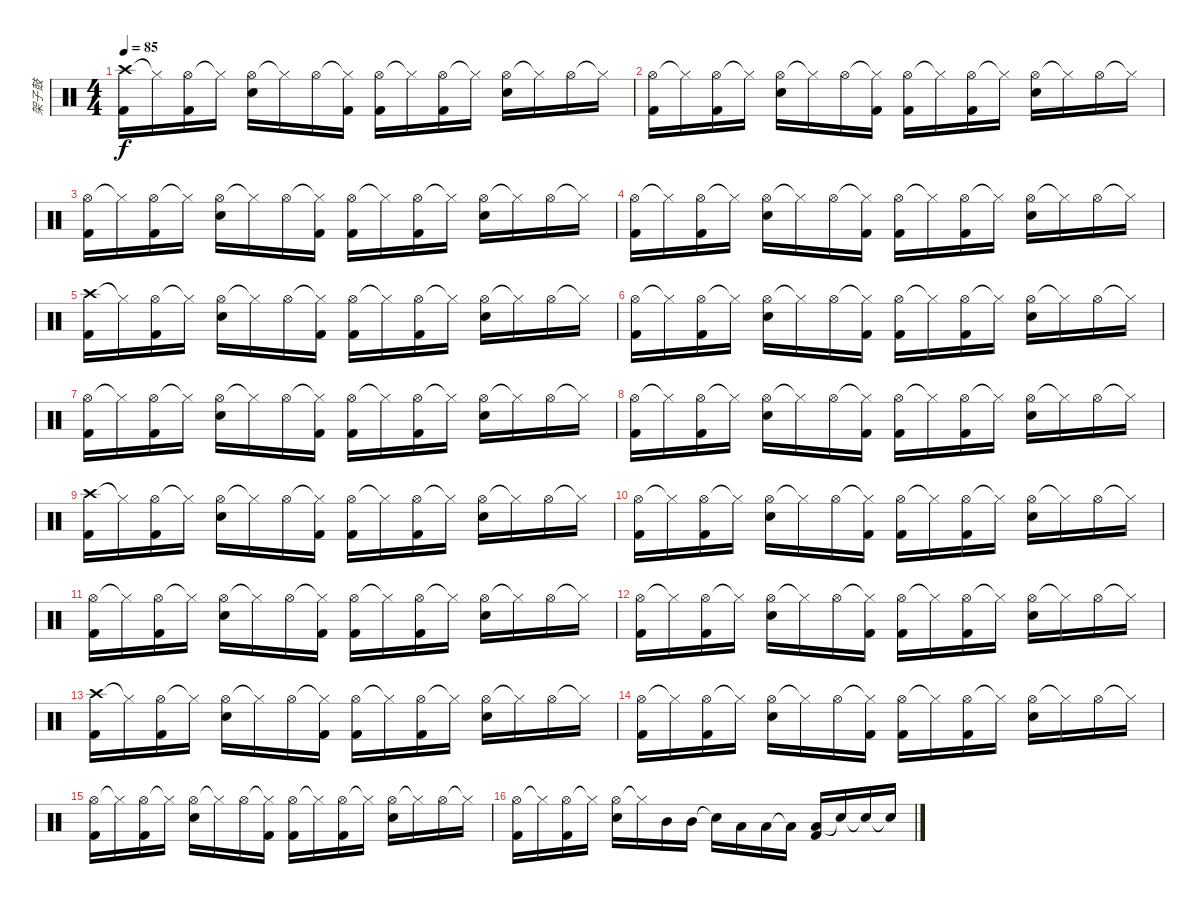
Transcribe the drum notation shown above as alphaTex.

\track ("架子鼓" "架子鼓") {instrument percussion}
\staff {score}
\articulation defaults
\ts (4 4)
\tempo 85
\clef neutral
\ks c
("Crash high (hit)" "Kick (hit) 2").16{dy f} "Hi-Hat (closed)"{t}.16 ("Hi-Hat (open)" "Kick (hit) 2").16 "Hi-Hat (closed)"{t}.16 ("Hi-Hat (open)" "Snare (hit) 2").16 "Hi-Hat (closed)"{t}.16 "Hi-Hat (open)".16 ("Hi-Hat (closed)"{t} "Kick (hit) 2").16 ("Hi-Hat (open)" "Kick (hit) 2").16 "Hi-Hat (closed)"{t}.16 ("Hi-Hat (open)" "Kick (hit) 2").16 "Hi-Hat (closed)"{t}.16 ("Hi-Hat (open)" "Snare (hit) 2").16 "Hi-Hat (closed)"{t}.16 "Hi-Hat (open)".16 "Hi-Hat (closed)"{t}.16 |
("Hi-Hat (open)" "Kick (hit) 2").16 "Hi-Hat (closed)"{t}.16 ("Hi-Hat (open)" "Kick (hit) 2").16 "Hi-Hat (closed)"{t}.16 ("Hi-Hat (open)" "Snare (hit) 2").16 "Hi-Hat (closed)"{t}.16 "Hi-Hat (open)".16 ("Hi-Hat (closed)"{t} "Kick (hit) 2").16 ("Hi-Hat (open)" "Kick (hit) 2").16 "Hi-Hat (closed)"{t}.16 ("Hi-Hat (open)" "Kick (hit) 2").16 "Hi-Hat (closed)"{t}.16 ("Hi-Hat (open)" "Snare (hit) 2").16 "Hi-Hat (closed)"{t}.16 "Hi-Hat (open)".16 "Hi-Hat (closed)"{t}.16 |
("Hi-Hat (open)" "Kick (hit) 2").16 "Hi-Hat (closed)"{t}.16 ("Hi-Hat (open)" "Kick (hit) 2").16 "Hi-Hat (closed)"{t}.16 ("Hi-Hat (open)" "Snare (hit) 2").16 "Hi-Hat (closed)"{t}.16 "Hi-Hat (open)".16 ("Hi-Hat (closed)"{t} "Kick (hit) 2").16 ("Hi-Hat (open)" "Kick (hit) 2").16 "Hi-Hat (closed)"{t}.16 ("Hi-Hat (open)" "Kick (hit) 2").16 "Hi-Hat (closed)"{t}.16 ("Hi-Hat (open)" "Snare (hit) 2").16 "Hi-Hat (closed)"{t}.16 "Hi-Hat (open)".16 "Hi-Hat (closed)"{t}.16 |
("Hi-Hat (open)" "Kick (hit) 2").16 "Hi-Hat (closed)"{t}.16 ("Hi-Hat (open)" "Kick (hit) 2").16 "Hi-Hat (closed)"{t}.16 ("Hi-Hat (open)" "Snare (hit) 2").16 "Hi-Hat (closed)"{t}.16 "Hi-Hat (open)".16 ("Hi-Hat (closed)"{t} "Kick (hit) 2").16 ("Hi-Hat (open)" "Kick (hit) 2").16 "Hi-Hat (closed)"{t}.16 ("Hi-Hat (open)" "Kick (hit) 2").16 "Hi-Hat (closed)"{t}.16 ("Hi-Hat (open)" "Snare (hit) 2").16 "Hi-Hat (closed)"{t}.16 "Hi-Hat (open)".16 "Hi-Hat (closed)"{t}.16 |
("Crash high (hit)" "Kick (hit) 2").16 "Hi-Hat (closed)"{t}.16 ("Hi-Hat (open)" "Kick (hit) 2").16 "Hi-Hat (closed)"{t}.16 ("Hi-Hat (open)" "Snare (hit) 2").16 "Hi-Hat (closed)"{t}.16 "Hi-Hat (open)".16 ("Hi-Hat (closed)"{t} "Kick (hit) 2").16 ("Hi-Hat (open)" "Kick (hit) 2").16 "Hi-Hat (closed)"{t}.16 ("Hi-Hat (open)" "Kick (hit) 2").16 "Hi-Hat (closed)"{t}.16 ("Hi-Hat (open)" "Snare (hit) 2").16 "Hi-Hat (closed)"{t}.16 "Hi-Hat (open)".16 "Hi-Hat (closed)"{t}.16 |
("Hi-Hat (open)" "Kick (hit) 2").16 "Hi-Hat (closed)"{t}.16 ("Hi-Hat (open)" "Kick (hit) 2").16 "Hi-Hat (closed)"{t}.16 ("Hi-Hat (open)" "Snare (hit) 2").16 "Hi-Hat (closed)"{t}.16 "Hi-Hat (open)".16 ("Hi-Hat (closed)"{t} "Kick (hit) 2").16 ("Hi-Hat (open)" "Kick (hit) 2").16 "Hi-Hat (closed)"{t}.16 ("Hi-Hat (open)" "Kick (hit) 2").16 "Hi-Hat (closed)"{t}.16 ("Hi-Hat (open)" "Snare (hit) 2").16 "Hi-Hat (closed)"{t}.16 "Hi-Hat (open)".16 "Hi-Hat (closed)"{t}.16 |
("Hi-Hat (open)" "Kick (hit) 2").16 "Hi-Hat (closed)"{t}.16 ("Hi-Hat (open)" "Kick (hit) 2").16 "Hi-Hat (closed)"{t}.16 ("Hi-Hat (open)" "Snare (hit) 2").16 "Hi-Hat (closed)"{t}.16 "Hi-Hat (open)".16 ("Hi-Hat (closed)"{t} "Kick (hit) 2").16 ("Hi-Hat (open)" "Kick (hit) 2").16 "Hi-Hat (closed)"{t}.16 ("Hi-Hat (open)" "Kick (hit) 2").16 "Hi-Hat (closed)"{t}.16 ("Hi-Hat (open)" "Snare (hit) 2").16 "Hi-Hat (closed)"{t}.16 "Hi-Hat (open)".16 "Hi-Hat (closed)"{t}.16 |
("Hi-Hat (open)" "Kick (hit) 2").16 "Hi-Hat (closed)"{t}.16 ("Hi-Hat (open)" "Kick (hit) 2").16 "Hi-Hat (closed)"{t}.16 ("Hi-Hat (open)" "Snare (hit) 2").16 "Hi-Hat (closed)"{t}.16 "Hi-Hat (open)".16 ("Hi-Hat (closed)"{t} "Kick (hit) 2").16 ("Hi-Hat (open)" "Kick (hit) 2").16 "Hi-Hat (closed)"{t}.16 ("Hi-Hat (open)" "Kick (hit) 2").16 "Hi-Hat (closed)"{t}.16 ("Hi-Hat (open)" "Snare (hit) 2").16 "Hi-Hat (closed)"{t}.16 "Hi-Hat (open)".16 "Hi-Hat (closed)"{t}.16 |
("Crash high (hit)" "Kick (hit) 2").16 "Hi-Hat (closed)"{t}.16 ("Hi-Hat (open)" "Kick (hit) 2").16 "Hi-Hat (closed)"{t}.16 ("Hi-Hat (open)" "Snare (hit) 2").16 "Hi-Hat (closed)"{t}.16 "Hi-Hat (open)".16 ("Hi-Hat (closed)"{t} "Kick (hit) 2").16 ("Hi-Hat (open)" "Kick (hit) 2").16 "Hi-Hat (closed)"{t}.16 ("Hi-Hat (open)" "Kick (hit) 2").16 "Hi-Hat (closed)"{t}.16 ("Hi-Hat (open)" "Snare (hit) 2").16 "Hi-Hat (closed)"{t}.16 "Hi-Hat (open)".16 "Hi-Hat (closed)"{t}.16 |
("Hi-Hat (open)" "Kick (hit) 2").16 "Hi-Hat (closed)"{t}.16 ("Hi-Hat (open)" "Kick (hit) 2").16 "Hi-Hat (closed)"{t}.16 ("Hi-Hat (open)" "Snare (hit) 2").16 "Hi-Hat (closed)"{t}.16 "Hi-Hat (open)".16 ("Hi-Hat (closed)"{t} "Kick (hit) 2").16 ("Hi-Hat (open)" "Kick (hit) 2").16 "Hi-Hat (closed)"{t}.16 ("Hi-Hat (open)" "Kick (hit) 2").16 "Hi-Hat (closed)"{t}.16 ("Hi-Hat (open)" "Snare (hit) 2").16 "Hi-Hat (closed)"{t}.16 "Hi-Hat (open)".16 "Hi-Hat (closed)"{t}.16 |
("Hi-Hat (open)" "Kick (hit) 2").16 "Hi-Hat (closed)"{t}.16 ("Hi-Hat (open)" "Kick (hit) 2").16 "Hi-Hat (closed)"{t}.16 ("Hi-Hat (open)" "Snare (hit) 2").16 "Hi-Hat (closed)"{t}.16 "Hi-Hat (open)".16 ("Hi-Hat (closed)"{t} "Kick (hit) 2").16 ("Hi-Hat (open)" "Kick (hit) 2").16 "Hi-Hat (closed)"{t}.16 ("Hi-Hat (open)" "Kick (hit) 2").16 "Hi-Hat (closed)"{t}.16 ("Hi-Hat (open)" "Snare (hit) 2").16 "Hi-Hat (closed)"{t}.16 "Hi-Hat (open)".16 "Hi-Hat (closed)"{t}.16 |
("Hi-Hat (open)" "Kick (hit) 2").16 "Hi-Hat (closed)"{t}.16 ("Hi-Hat (open)" "Kick (hit) 2").16 "Hi-Hat (closed)"{t}.16 ("Hi-Hat (open)" "Snare (hit) 2").16 "Hi-Hat (closed)"{t}.16 "Hi-Hat (open)".16 ("Hi-Hat (closed)"{t} "Kick (hit) 2").16 ("Hi-Hat (open)" "Kick (hit) 2").16 "Hi-Hat (closed)"{t}.16 ("Hi-Hat (open)" "Kick (hit) 2").16 "Hi-Hat (closed)"{t}.16 ("Hi-Hat (open)" "Snare (hit) 2").16 "Hi-Hat (closed)"{t}.16 "Hi-Hat (open)".16 "Hi-Hat (closed)"{t}.16 |
("Crash high (hit)" "Kick (hit) 2").16 "Hi-Hat (closed)"{t}.16 ("Hi-Hat (open)" "Kick (hit) 2").16 "Hi-Hat (closed)"{t}.16 ("Hi-Hat (open)" "Snare (hit) 2").16 "Hi-Hat (closed)"{t}.16 "Hi-Hat (open)".16 ("Hi-Hat (closed)"{t} "Kick (hit) 2").16 ("Hi-Hat (open)" "Kick (hit) 2").16 "Hi-Hat (closed)"{t}.16 ("Hi-Hat (open)" "Kick (hit) 2").16 "Hi-Hat (closed)"{t}.16 ("Hi-Hat (open)" "Snare (hit) 2").16 "Hi-Hat (closed)"{t}.16 "Hi-Hat (open)".16 "Hi-Hat (closed)"{t}.16 |
("Hi-Hat (open)" "Kick (hit) 2").16 "Hi-Hat (closed)"{t}.16 ("Hi-Hat (open)" "Kick (hit) 2").16 "Hi-Hat (closed)"{t}.16 ("Hi-Hat (open)" "Snare (hit) 2").16 "Hi-Hat (closed)"{t}.16 "Hi-Hat (open)".16 ("Hi-Hat (closed)"{t} "Kick (hit) 2").16 ("Hi-Hat (open)" "Kick (hit) 2").16 "Hi-Hat (closed)"{t}.16 ("Hi-Hat (open)" "Kick (hit) 2").16 "Hi-Hat (closed)"{t}.16 ("Hi-Hat (open)" "Snare (hit) 2").16 "Hi-Hat (closed)"{t}.16 "Hi-Hat (open)".16 "Hi-Hat (closed)"{t}.16 |
("Hi-Hat (open)" "Kick (hit) 2").16 "Hi-Hat (closed)"{t}.16 ("Hi-Hat (open)" "Kick (hit) 2").16 "Hi-Hat (closed)"{t}.16 ("Hi-Hat (open)" "Snare (hit) 2").16 "Hi-Hat (closed)"{t}.16 "Hi-Hat (open)".16 ("Hi-Hat (closed)"{t} "Kick (hit) 2").16 ("Hi-Hat (open)" "Kick (hit) 2").16 "Hi-Hat (closed)"{t}.16 ("Hi-Hat (open)" "Kick (hit) 2").16 "Hi-Hat (closed)"{t}.16 ("Hi-Hat (open)" "Snare (hit) 2").16 "Hi-Hat (closed)"{t}.16 "Hi-Hat (open)".16 "Hi-Hat (closed)"{t}.16 |
("Hi-Hat (open)" "Kick (hit) 2").16 "Hi-Hat (closed)"{t}.16 ("Hi-Hat (open)" "Kick (hit) 2").16 "Hi-Hat (closed)"{t}.16 ("Hi-Hat (open)" "Snare (hit) 2").16 "Hi-Hat (closed)"{t}.16 "Mid Tom (hit)".16 "Mid Tom (hit)".16 "Snare (hit)"{t}.16 "Low Tom (hit)".16 "Low Tom (hit)".16 "Low Tom (hit)"{t}.16 ("Low Floor Tom (hit)" "Kick (hit) 2").16 "Snare (hit)"{t}.16 "Snare (hit)"{t}.16 "Snare (hit)"{t}.16
